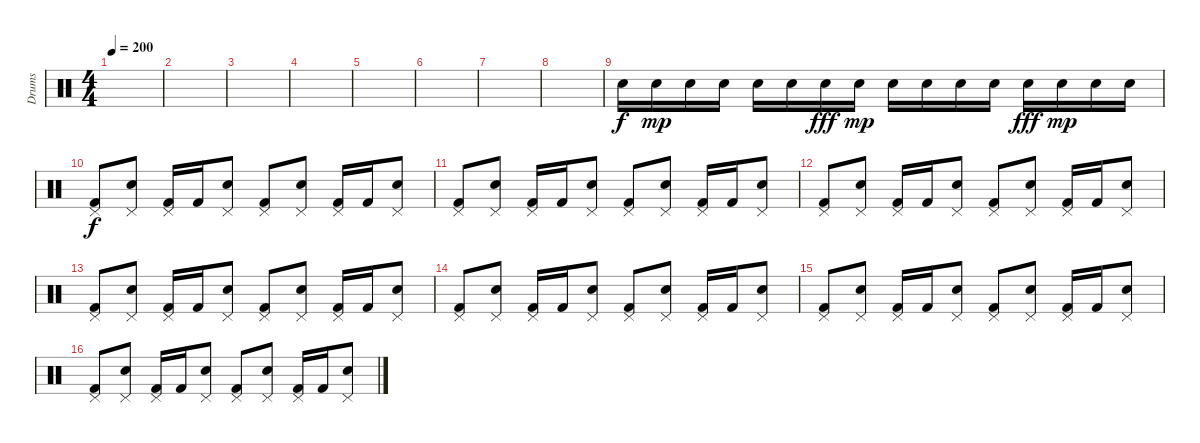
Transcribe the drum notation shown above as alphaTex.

\track ("Drums" "Drums") {instrument percussion}
\staff {score}
\articulation defaults
\ts (4 4)
\tempo 200
\clef neutral
\ks c
|
|
|
|
|
|
|
|
"Snare (hit) 2".16 "Snare (hit) 2".16{dy mp} "Snare (hit) 2".16 "Snare (hit) 2".16 "Snare (hit) 2".16 "Snare (hit) 2".16 "Snare (hit) 2".16{dy fff} "Snare (hit) 2".16{dy mp} "Snare (hit) 2".16 "Snare (hit) 2".16 "Snare (hit) 2".16 "Snare (hit) 2".16 "Snare (hit) 2".16{dy fff} "Snare (hit) 2".16{dy mp} "Snare (hit) 2".16 "Snare (hit) 2".16 |
("Pedal Hi-Hat (hit)" "Kick (hit) 2").8{dy f} ("Pedal Hi-Hat (hit)" "Snare (hit) 2").8 ("Pedal Hi-Hat (hit)" "Kick (hit) 2").16 "Kick (hit) 2".16 ("Pedal Hi-Hat (hit)" "Snare (hit) 2").8 ("Pedal Hi-Hat (hit)" "Kick (hit) 2").8 ("Pedal Hi-Hat (hit)" "Snare (hit) 2").8 ("Pedal Hi-Hat (hit)" "Kick (hit) 2").16 "Kick (hit) 2".16 ("Pedal Hi-Hat (hit)" "Snare (hit) 2").8 |
("Pedal Hi-Hat (hit)" "Kick (hit) 2").8 ("Pedal Hi-Hat (hit)" "Snare (hit) 2").8 ("Pedal Hi-Hat (hit)" "Kick (hit) 2").16 "Kick (hit) 2".16 ("Pedal Hi-Hat (hit)" "Snare (hit) 2").8 ("Pedal Hi-Hat (hit)" "Kick (hit) 2").8 ("Pedal Hi-Hat (hit)" "Snare (hit) 2").8 ("Pedal Hi-Hat (hit)" "Kick (hit) 2").16 "Kick (hit) 2".16 ("Pedal Hi-Hat (hit)" "Snare (hit) 2").8 |
("Pedal Hi-Hat (hit)" "Kick (hit) 2").8 ("Pedal Hi-Hat (hit)" "Snare (hit) 2").8 ("Pedal Hi-Hat (hit)" "Kick (hit) 2").16 "Kick (hit) 2".16 ("Pedal Hi-Hat (hit)" "Snare (hit) 2").8 ("Pedal Hi-Hat (hit)" "Kick (hit) 2").8 ("Pedal Hi-Hat (hit)" "Snare (hit) 2").8 ("Pedal Hi-Hat (hit)" "Kick (hit) 2").16 "Kick (hit) 2".16 ("Pedal Hi-Hat (hit)" "Snare (hit) 2").8 |
("Pedal Hi-Hat (hit)" "Kick (hit) 2").8 ("Pedal Hi-Hat (hit)" "Snare (hit) 2").8 ("Pedal Hi-Hat (hit)" "Kick (hit) 2").16 "Kick (hit) 2".16 ("Pedal Hi-Hat (hit)" "Snare (hit) 2").8 ("Pedal Hi-Hat (hit)" "Kick (hit) 2").8 ("Pedal Hi-Hat (hit)" "Snare (hit) 2").8 ("Pedal Hi-Hat (hit)" "Kick (hit) 2").16 "Kick (hit) 2".16 ("Pedal Hi-Hat (hit)" "Snare (hit) 2").8 |
("Pedal Hi-Hat (hit)" "Kick (hit) 2").8 ("Pedal Hi-Hat (hit)" "Snare (hit) 2").8 ("Pedal Hi-Hat (hit)" "Kick (hit) 2").16 "Kick (hit) 2".16 ("Pedal Hi-Hat (hit)" "Snare (hit) 2").8 ("Pedal Hi-Hat (hit)" "Kick (hit) 2").8 ("Pedal Hi-Hat (hit)" "Snare (hit) 2").8 ("Pedal Hi-Hat (hit)" "Kick (hit) 2").16 "Kick (hit) 2".16 ("Pedal Hi-Hat (hit)" "Snare (hit) 2").8 |
("Pedal Hi-Hat (hit)" "Kick (hit) 2").8 ("Pedal Hi-Hat (hit)" "Snare (hit) 2").8 ("Pedal Hi-Hat (hit)" "Kick (hit) 2").16 "Kick (hit) 2".16 ("Pedal Hi-Hat (hit)" "Snare (hit) 2").8 ("Pedal Hi-Hat (hit)" "Kick (hit) 2").8 ("Pedal Hi-Hat (hit)" "Snare (hit) 2").8 ("Pedal Hi-Hat (hit)" "Kick (hit) 2").16 "Kick (hit) 2".16 ("Pedal Hi-Hat (hit)" "Snare (hit) 2").8 |
("Pedal Hi-Hat (hit)" "Kick (hit) 2").8 ("Pedal Hi-Hat (hit)" "Snare (hit) 2").8 ("Pedal Hi-Hat (hit)" "Kick (hit) 2").16 "Kick (hit) 2".16 ("Pedal Hi-Hat (hit)" "Snare (hit) 2").8 ("Pedal Hi-Hat (hit)" "Kick (hit) 2").8 ("Pedal Hi-Hat (hit)" "Snare (hit) 2").8 ("Pedal Hi-Hat (hit)" "Kick (hit) 2").16 "Kick (hit) 2".16 ("Pedal Hi-Hat (hit)" "Snare (hit) 2").8
